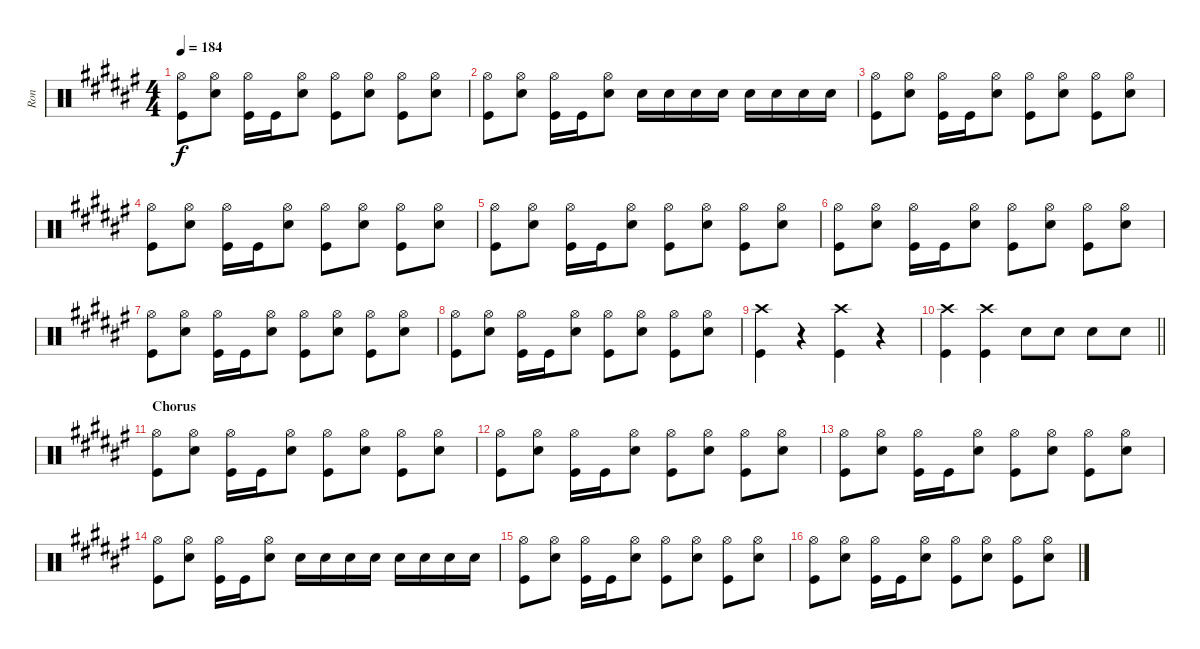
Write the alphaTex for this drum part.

\track ("Ron" "Ron") {instrument percussion}
\staff {score}
\articulation defaults
\ts (4 4)
\tempo 184
\clef neutral
\ks f#
("Kick (hit)" "Hi-Hat (open)").8{dy f} ("Electric Snare (hit)" "Hi-Hat (open)").8 ("Kick (hit)" "Hi-Hat (open)").16 "Kick (hit)".16 ("Electric Snare (hit)" "Hi-Hat (open)").8 ("Kick (hit)" "Hi-Hat (open)").8 ("Electric Snare (hit)" "Hi-Hat (open)").8 ("Kick (hit)" "Hi-Hat (open)").8 ("Electric Snare (hit)" "Hi-Hat (open)").8 |
("Kick (hit)" "Hi-Hat (open)").8 ("Electric Snare (hit)" "Hi-Hat (open)").8 ("Kick (hit)" "Hi-Hat (open)").16 "Kick (hit)".16 ("Electric Snare (hit)" "Hi-Hat (open)").8 "Electric Snare (hit)".16 "Electric Snare (hit)".16 "Electric Snare (hit)".16 "Electric Snare (hit)".16 "Electric Snare (hit)".16 "Electric Snare (hit)".16 "Electric Snare (hit)".16 "Electric Snare (hit)".16 |
("Kick (hit)" "Hi-Hat (open)").8 ("Electric Snare (hit)" "Hi-Hat (open)").8 ("Kick (hit)" "Hi-Hat (open)").16 "Kick (hit)".16 ("Electric Snare (hit)" "Hi-Hat (open)").8 ("Kick (hit)" "Hi-Hat (open)").8 ("Electric Snare (hit)" "Hi-Hat (open)").8 ("Kick (hit)" "Hi-Hat (open)").8 ("Electric Snare (hit)" "Hi-Hat (open)").8 |
("Kick (hit)" "Hi-Hat (open)").8 ("Electric Snare (hit)" "Hi-Hat (open)").8 ("Kick (hit)" "Hi-Hat (open)").16 "Kick (hit)".16 ("Electric Snare (hit)" "Hi-Hat (open)").8 ("Kick (hit)" "Hi-Hat (open)").8 ("Electric Snare (hit)" "Hi-Hat (open)").8 ("Kick (hit)" "Hi-Hat (open)").8 ("Electric Snare (hit)" "Hi-Hat (open)").8 |
("Kick (hit)" "Hi-Hat (open)").8 ("Electric Snare (hit)" "Hi-Hat (open)").8 ("Kick (hit)" "Hi-Hat (open)").16 "Kick (hit)".16 ("Electric Snare (hit)" "Hi-Hat (open)").8 ("Kick (hit)" "Hi-Hat (open)").8 ("Electric Snare (hit)" "Hi-Hat (open)").8 ("Kick (hit)" "Hi-Hat (open)").8 ("Electric Snare (hit)" "Hi-Hat (open)").8 |
("Kick (hit)" "Hi-Hat (open)").8 ("Electric Snare (hit)" "Hi-Hat (open)").8 ("Kick (hit)" "Hi-Hat (open)").16 "Kick (hit)".16 ("Electric Snare (hit)" "Hi-Hat (open)").8 ("Kick (hit)" "Hi-Hat (open)").8 ("Electric Snare (hit)" "Hi-Hat (open)").8 ("Kick (hit)" "Hi-Hat (open)").8 ("Electric Snare (hit)" "Hi-Hat (open)").8 |
("Kick (hit)" "Hi-Hat (open)").8 ("Electric Snare (hit)" "Hi-Hat (open)").8 ("Kick (hit)" "Hi-Hat (open)").16 "Kick (hit)".16 ("Electric Snare (hit)" "Hi-Hat (open)").8 ("Kick (hit)" "Hi-Hat (open)").8 ("Electric Snare (hit)" "Hi-Hat (open)").8 ("Kick (hit)" "Hi-Hat (open)").8 ("Electric Snare (hit)" "Hi-Hat (open)").8 |
("Kick (hit)" "Hi-Hat (open)").8 ("Electric Snare (hit)" "Hi-Hat (open)").8 ("Kick (hit)" "Hi-Hat (open)").16 "Kick (hit)".16 ("Electric Snare (hit)" "Hi-Hat (open)").8 ("Kick (hit)" "Hi-Hat (open)").8 ("Electric Snare (hit)" "Hi-Hat (open)").8 ("Kick (hit)" "Hi-Hat (open)").8 ("Electric Snare (hit)" "Hi-Hat (open)").8 |
("Kick (hit)" "Crash high (hit)").4 r.4 ("Kick (hit)" "Crash high (hit)").4 r.4 |
\barLineRight lightlight
("Kick (hit)" "Crash high (hit)").4 ("Kick (hit)" "Crash high (hit)").4 "Electric Snare (hit)".8 "Electric Snare (hit)".8 "Electric Snare (hit)".8 "Electric Snare (hit)".8 |
\section ("" "Chorus")
("Kick (hit)" "Hi-Hat (open)").8 ("Electric Snare (hit)" "Hi-Hat (open)").8 ("Kick (hit)" "Hi-Hat (open)").16 "Kick (hit)".16 ("Electric Snare (hit)" "Hi-Hat (open)").8 ("Kick (hit)" "Hi-Hat (open)").8 ("Electric Snare (hit)" "Hi-Hat (open)").8 ("Kick (hit)" "Hi-Hat (open)").8 ("Electric Snare (hit)" "Hi-Hat (open)").8 |
("Kick (hit)" "Hi-Hat (open)").8 ("Electric Snare (hit)" "Hi-Hat (open)").8 ("Kick (hit)" "Hi-Hat (open)").16 "Kick (hit)".16 ("Electric Snare (hit)" "Hi-Hat (open)").8 ("Kick (hit)" "Hi-Hat (open)").8 ("Electric Snare (hit)" "Hi-Hat (open)").8 ("Kick (hit)" "Hi-Hat (open)").8 ("Electric Snare (hit)" "Hi-Hat (open)").8 |
("Kick (hit)" "Hi-Hat (open)").8 ("Electric Snare (hit)" "Hi-Hat (open)").8 ("Kick (hit)" "Hi-Hat (open)").16 "Kick (hit)".16 ("Electric Snare (hit)" "Hi-Hat (open)").8 ("Kick (hit)" "Hi-Hat (open)").8 ("Electric Snare (hit)" "Hi-Hat (open)").8 ("Kick (hit)" "Hi-Hat (open)").8 ("Electric Snare (hit)" "Hi-Hat (open)").8 |
("Kick (hit)" "Hi-Hat (open)").8 ("Electric Snare (hit)" "Hi-Hat (open)").8 ("Kick (hit)" "Hi-Hat (open)").16 "Kick (hit)".16 ("Electric Snare (hit)" "Hi-Hat (open)").8 "Electric Snare (hit)".16 "Electric Snare (hit)".16 "Electric Snare (hit)".16 "Electric Snare (hit)".16 "Electric Snare (hit)".16 "Electric Snare (hit)".16 "Electric Snare (hit)".16 "Electric Snare (hit)".16 |
("Kick (hit)" "Hi-Hat (open)").8 ("Electric Snare (hit)" "Hi-Hat (open)").8 ("Kick (hit)" "Hi-Hat (open)").16 "Kick (hit)".16 ("Electric Snare (hit)" "Hi-Hat (open)").8 ("Kick (hit)" "Hi-Hat (open)").8 ("Electric Snare (hit)" "Hi-Hat (open)").8 ("Kick (hit)" "Hi-Hat (open)").8 ("Electric Snare (hit)" "Hi-Hat (open)").8 |
("Kick (hit)" "Hi-Hat (open)").8 ("Electric Snare (hit)" "Hi-Hat (open)").8 ("Kick (hit)" "Hi-Hat (open)").16 "Kick (hit)".16 ("Electric Snare (hit)" "Hi-Hat (open)").8 ("Kick (hit)" "Hi-Hat (open)").8 ("Electric Snare (hit)" "Hi-Hat (open)").8 ("Kick (hit)" "Hi-Hat (open)").8 ("Electric Snare (hit)" "Hi-Hat (open)").8
